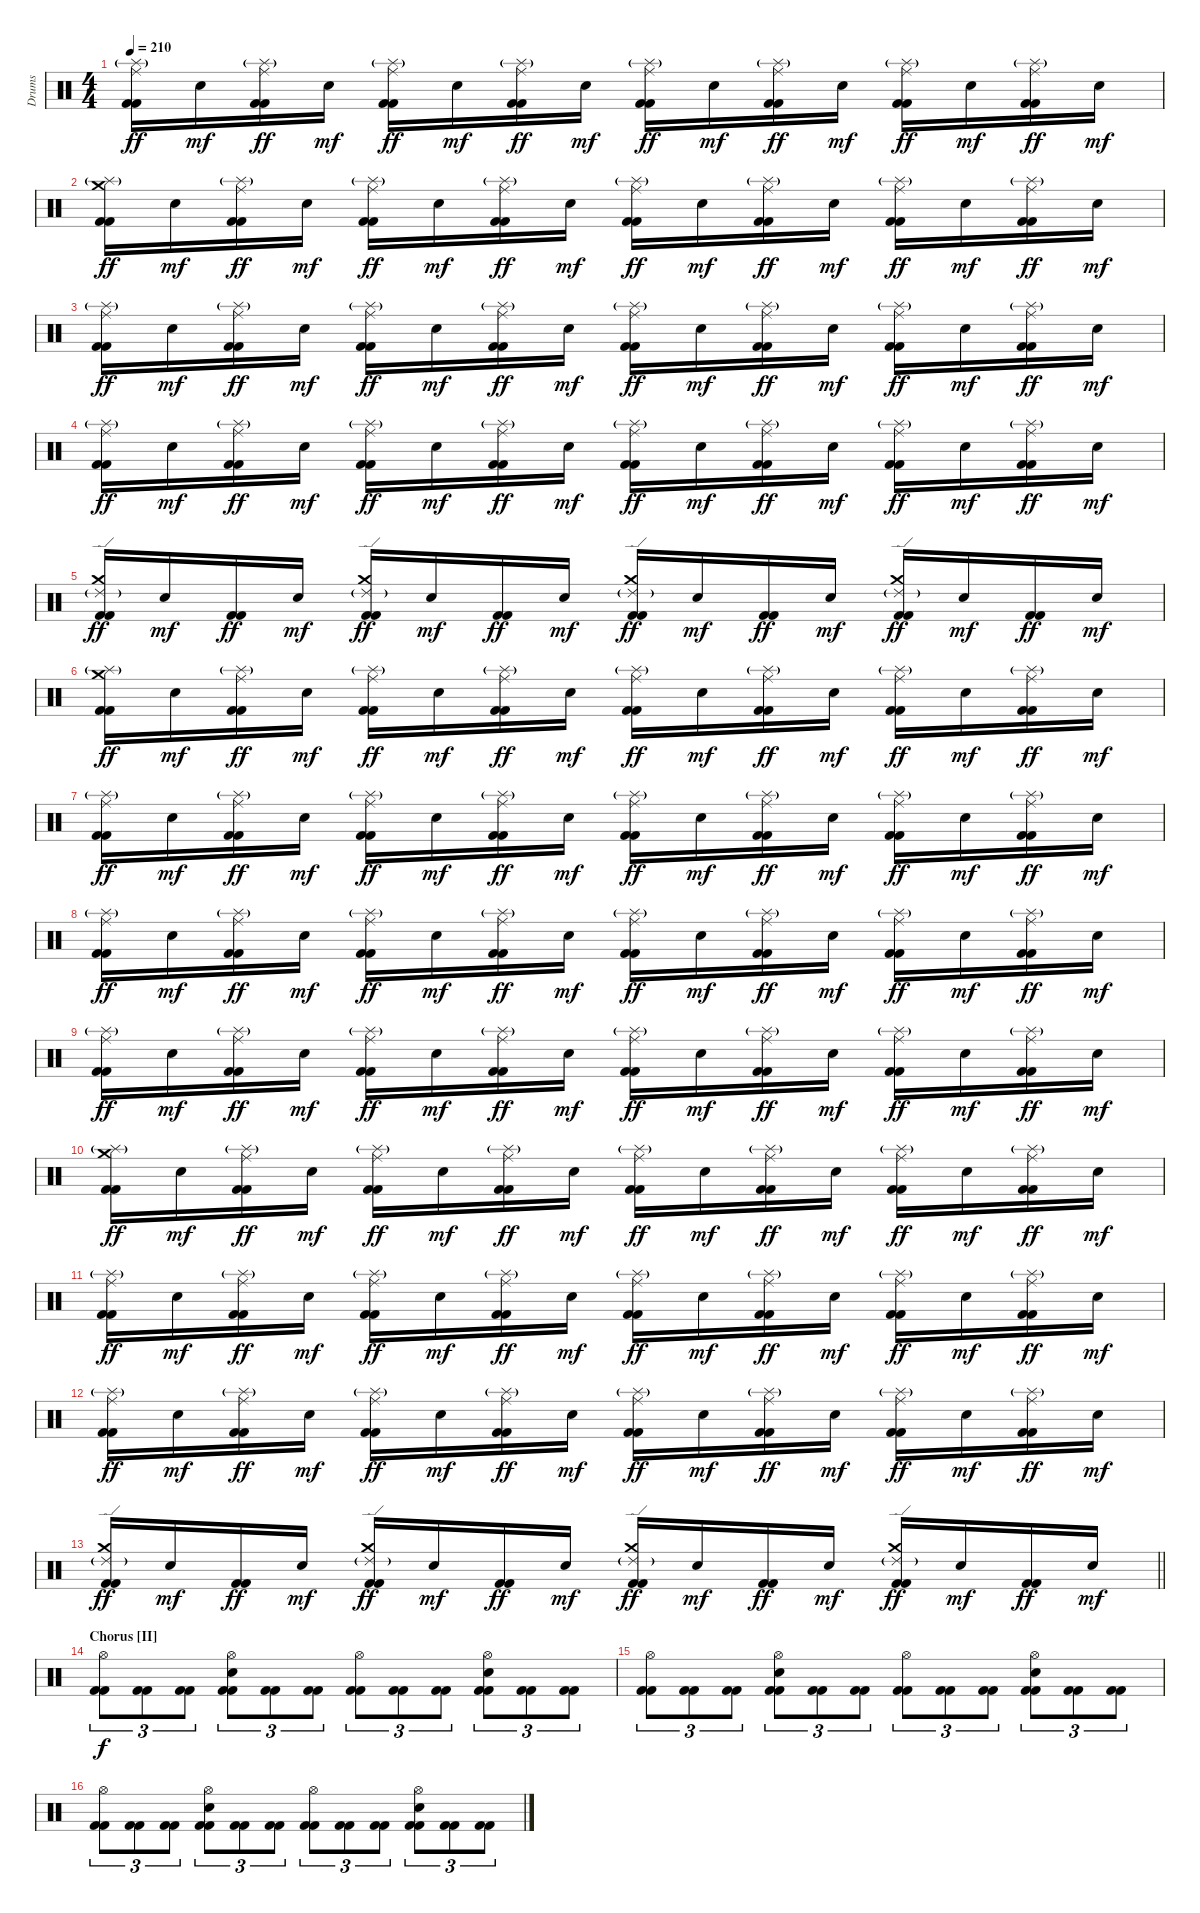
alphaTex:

\track ("Drums" "Drums") {instrument percussion}
\staff {score}
\articulation defaults
\ts (4 4)
\tempo 210
\clef neutral
\ks c
("Ride (middle)" "Splash (hit)"{g} "Kick (hit) 2" "Kick (hit) 2").16{dy ff} "Snare (hit) 2".16{dy mf} ("Ride (middle)" "Splash (hit)"{g} "Kick (hit) 2" "Kick (hit) 2").16{dy ff} "Snare (hit) 2".16{dy mf} ("Ride (middle)" "Splash (hit)"{g} "Kick (hit) 2" "Kick (hit) 2").16{dy ff} "Snare (hit) 2".16{dy mf} ("Ride (middle)" "Splash (hit)"{g} "Kick (hit) 2" "Kick (hit) 2").16{dy ff} "Snare (hit) 2".16{dy mf} ("Ride (middle)" "Splash (hit)"{g} "Kick (hit) 2" "Kick (hit) 2").16{dy ff} "Snare (hit) 2".16{dy mf} ("Ride (middle)" "Splash (hit)"{g} "Kick (hit) 2" "Kick (hit) 2").16{dy ff} "Snare (hit) 2".16{dy mf} ("Ride (middle)" "Splash (hit)"{g} "Kick (hit) 2" "Kick (hit) 2").16{dy ff} "Snare (hit) 2".16{dy mf} ("Ride (middle)" "Splash (hit)"{g} "Kick (hit) 2" "Kick (hit) 2").16{dy ff} "Snare (hit) 2".16{dy mf} |
("Crash medium (hit)" "Splash (hit)"{g} "Kick (hit) 2" "Kick (hit) 2").16{dy ff} "Snare (hit) 2".16{dy mf} ("Ride (middle)" "Splash (hit)"{g} "Kick (hit) 2" "Kick (hit) 2").16{dy ff} "Snare (hit) 2".16{dy mf} ("Ride (middle)" "Splash (hit)"{g} "Kick (hit) 2" "Kick (hit) 2").16{dy ff} "Snare (hit) 2".16{dy mf} ("Ride (middle)" "Splash (hit)"{g} "Kick (hit) 2" "Kick (hit) 2").16{dy ff} "Snare (hit) 2".16{dy mf} ("Ride (middle)" "Splash (hit)"{g} "Kick (hit) 2" "Kick (hit) 2").16{dy ff} "Snare (hit) 2".16{dy mf} ("Ride (middle)" "Splash (hit)"{g} "Kick (hit) 2" "Kick (hit) 2").16{dy ff} "Snare (hit) 2".16{dy mf} ("Ride (middle)" "Splash (hit)"{g} "Kick (hit) 2" "Kick (hit) 2").16{dy ff} "Snare (hit) 2".16{dy mf} ("Ride (middle)" "Splash (hit)"{g} "Kick (hit) 2" "Kick (hit) 2").16{dy ff} "Snare (hit) 2".16{dy mf} |
("Ride (middle)" "Splash (hit)"{g} "Kick (hit) 2" "Kick (hit) 2").16{dy ff} "Snare (hit) 2".16{dy mf} ("Ride (middle)" "Splash (hit)"{g} "Kick (hit) 2" "Kick (hit) 2").16{dy ff} "Snare (hit) 2".16{dy mf} ("Ride (middle)" "Splash (hit)"{g} "Kick (hit) 2" "Kick (hit) 2").16{dy ff} "Snare (hit) 2".16{dy mf} ("Ride (middle)" "Splash (hit)"{g} "Kick (hit) 2" "Kick (hit) 2").16{dy ff} "Snare (hit) 2".16{dy mf} ("Ride (middle)" "Splash (hit)"{g} "Kick (hit) 2" "Kick (hit) 2").16{dy ff} "Snare (hit) 2".16{dy mf} ("Ride (middle)" "Splash (hit)"{g} "Kick (hit) 2" "Kick (hit) 2").16{dy ff} "Snare (hit) 2".16{dy mf} ("Ride (middle)" "Splash (hit)"{g} "Kick (hit) 2" "Kick (hit) 2").16{dy ff} "Snare (hit) 2".16{dy mf} ("Ride (middle)" "Splash (hit)"{g} "Kick (hit) 2" "Kick (hit) 2").16{dy ff} "Snare (hit) 2".16{dy mf} |
("Ride (middle)" "Splash (hit)"{g} "Kick (hit) 2" "Kick (hit) 2").16{dy ff} "Snare (hit) 2".16{dy mf} ("Ride (middle)" "Splash (hit)"{g} "Kick (hit) 2" "Kick (hit) 2").16{dy ff} "Snare (hit) 2".16{dy mf} ("Ride (middle)" "Splash (hit)"{g} "Kick (hit) 2" "Kick (hit) 2").16{dy ff} "Snare (hit) 2".16{dy mf} ("Ride (middle)" "Splash (hit)"{g} "Kick (hit) 2" "Kick (hit) 2").16{dy ff} "Snare (hit) 2".16{dy mf} ("Ride (middle)" "Splash (hit)"{g} "Kick (hit) 2" "Kick (hit) 2").16{dy ff} "Snare (hit) 2".16{dy mf} ("Ride (middle)" "Splash (hit)"{g} "Kick (hit) 2" "Kick (hit) 2").16{dy ff} "Snare (hit) 2".16{dy mf} ("Ride (middle)" "Splash (hit)"{g} "Kick (hit) 2" "Kick (hit) 2").16{dy ff} "Snare (hit) 2".16{dy mf} ("Ride (middle)" "Splash (hit)"{g} "Kick (hit) 2" "Kick (hit) 2").16{dy ff} "Snare (hit) 2".16{dy mf} |
("Crash medium (hit)" "Ride (edge) 2"{g} "Kick (hit) 2" "Kick (hit) 2").16{dy ff} "Snare (hit) 2".16{dy mf} ("Kick (hit) 2" "Kick (hit) 2").16{dy ff} "Snare (hit) 2".16{dy mf} ("Crash medium (hit)" "Ride (edge) 2"{g} "Kick (hit) 2" "Kick (hit) 2").16{dy ff} "Snare (hit) 2".16{dy mf} ("Kick (hit) 2" "Kick (hit) 2").16{dy ff} "Snare (hit) 2".16{dy mf} ("Crash medium (hit)" "Ride (edge) 2"{g} "Kick (hit) 2" "Kick (hit) 2").16{dy ff} "Snare (hit) 2".16{dy mf} ("Kick (hit) 2" "Kick (hit) 2").16{dy ff} "Snare (hit) 2".16{dy mf} ("Crash medium (hit)" "Ride (edge) 2"{g} "Kick (hit) 2" "Kick (hit) 2").16{dy ff} "Snare (hit) 2".16{dy mf} ("Kick (hit) 2" "Kick (hit) 2").16{dy ff} "Snare (hit) 2".16{dy mf} |
("Crash medium (hit)" "Splash (hit)"{g} "Kick (hit) 2" "Kick (hit) 2").16{dy ff} "Snare (hit) 2".16{dy mf} ("Ride (middle)" "Splash (hit)"{g} "Kick (hit) 2" "Kick (hit) 2").16{dy ff} "Snare (hit) 2".16{dy mf} ("Ride (middle)" "Splash (hit)"{g} "Kick (hit) 2" "Kick (hit) 2").16{dy ff} "Snare (hit) 2".16{dy mf} ("Ride (middle)" "Splash (hit)"{g} "Kick (hit) 2" "Kick (hit) 2").16{dy ff} "Snare (hit) 2".16{dy mf} ("Ride (middle)" "Splash (hit)"{g} "Kick (hit) 2" "Kick (hit) 2").16{dy ff} "Snare (hit) 2".16{dy mf} ("Ride (middle)" "Splash (hit)"{g} "Kick (hit) 2" "Kick (hit) 2").16{dy ff} "Snare (hit) 2".16{dy mf} ("Ride (middle)" "Splash (hit)"{g} "Kick (hit) 2" "Kick (hit) 2").16{dy ff} "Snare (hit) 2".16{dy mf} ("Ride (middle)" "Splash (hit)"{g} "Kick (hit) 2" "Kick (hit) 2").16{dy ff} "Snare (hit) 2".16{dy mf} |
("Ride (middle)" "Splash (hit)"{g} "Kick (hit) 2" "Kick (hit) 2").16{dy ff} "Snare (hit) 2".16{dy mf} ("Ride (middle)" "Splash (hit)"{g} "Kick (hit) 2" "Kick (hit) 2").16{dy ff} "Snare (hit) 2".16{dy mf} ("Ride (middle)" "Splash (hit)"{g} "Kick (hit) 2" "Kick (hit) 2").16{dy ff} "Snare (hit) 2".16{dy mf} ("Ride (middle)" "Splash (hit)"{g} "Kick (hit) 2" "Kick (hit) 2").16{dy ff} "Snare (hit) 2".16{dy mf} ("Ride (middle)" "Splash (hit)"{g} "Kick (hit) 2" "Kick (hit) 2").16{dy ff} "Snare (hit) 2".16{dy mf} ("Ride (middle)" "Splash (hit)"{g} "Kick (hit) 2" "Kick (hit) 2").16{dy ff} "Snare (hit) 2".16{dy mf} ("Ride (middle)" "Splash (hit)"{g} "Kick (hit) 2" "Kick (hit) 2").16{dy ff} "Snare (hit) 2".16{dy mf} ("Ride (middle)" "Splash (hit)"{g} "Kick (hit) 2" "Kick (hit) 2").16{dy ff} "Snare (hit) 2".16{dy mf} |
("Ride (middle)" "Splash (hit)"{g} "Kick (hit) 2" "Kick (hit) 2").16{dy ff} "Snare (hit) 2".16{dy mf} ("Ride (middle)" "Splash (hit)"{g} "Kick (hit) 2" "Kick (hit) 2").16{dy ff} "Snare (hit) 2".16{dy mf} ("Ride (middle)" "Splash (hit)"{g} "Kick (hit) 2" "Kick (hit) 2").16{dy ff} "Snare (hit) 2".16{dy mf} ("Ride (middle)" "Splash (hit)"{g} "Kick (hit) 2" "Kick (hit) 2").16{dy ff} "Snare (hit) 2".16{dy mf} ("Ride (middle)" "Splash (hit)"{g} "Kick (hit) 2" "Kick (hit) 2").16{dy ff} "Snare (hit) 2".16{dy mf} ("Ride (middle)" "Splash (hit)"{g} "Kick (hit) 2" "Kick (hit) 2").16{dy ff} "Snare (hit) 2".16{dy mf} ("Ride (middle)" "Splash (hit)"{g} "Kick (hit) 2" "Kick (hit) 2").16{dy ff} "Snare (hit) 2".16{dy mf} ("Ride (middle)" "Splash (hit)"{g} "Kick (hit) 2" "Kick (hit) 2").16{dy ff} "Snare (hit) 2".16{dy mf} |
("Ride (middle)" "Splash (hit)"{g} "Kick (hit) 2" "Kick (hit) 2").16{dy ff} "Snare (hit) 2".16{dy mf} ("Ride (middle)" "Splash (hit)"{g} "Kick (hit) 2" "Kick (hit) 2").16{dy ff} "Snare (hit) 2".16{dy mf} ("Ride (middle)" "Splash (hit)"{g} "Kick (hit) 2" "Kick (hit) 2").16{dy ff} "Snare (hit) 2".16{dy mf} ("Ride (middle)" "Splash (hit)"{g} "Kick (hit) 2" "Kick (hit) 2").16{dy ff} "Snare (hit) 2".16{dy mf} ("Ride (middle)" "Splash (hit)"{g} "Kick (hit) 2" "Kick (hit) 2").16{dy ff} "Snare (hit) 2".16{dy mf} ("Ride (middle)" "Splash (hit)"{g} "Kick (hit) 2" "Kick (hit) 2").16{dy ff} "Snare (hit) 2".16{dy mf} ("Ride (middle)" "Splash (hit)"{g} "Kick (hit) 2" "Kick (hit) 2").16{dy ff} "Snare (hit) 2".16{dy mf} ("Ride (middle)" "Splash (hit)"{g} "Kick (hit) 2" "Kick (hit) 2").16{dy ff} "Snare (hit) 2".16{dy mf} |
("Crash medium (hit)" "Splash (hit)"{g} "Kick (hit) 2" "Kick (hit) 2").16{dy ff} "Snare (hit) 2".16{dy mf} ("Ride (middle)" "Splash (hit)"{g} "Kick (hit) 2" "Kick (hit) 2").16{dy ff} "Snare (hit) 2".16{dy mf} ("Ride (middle)" "Splash (hit)"{g} "Kick (hit) 2" "Kick (hit) 2").16{dy ff} "Snare (hit) 2".16{dy mf} ("Ride (middle)" "Splash (hit)"{g} "Kick (hit) 2" "Kick (hit) 2").16{dy ff} "Snare (hit) 2".16{dy mf} ("Ride (middle)" "Splash (hit)"{g} "Kick (hit) 2" "Kick (hit) 2").16{dy ff} "Snare (hit) 2".16{dy mf} ("Ride (middle)" "Splash (hit)"{g} "Kick (hit) 2" "Kick (hit) 2").16{dy ff} "Snare (hit) 2".16{dy mf} ("Ride (middle)" "Splash (hit)"{g} "Kick (hit) 2" "Kick (hit) 2").16{dy ff} "Snare (hit) 2".16{dy mf} ("Ride (middle)" "Splash (hit)"{g} "Kick (hit) 2" "Kick (hit) 2").16{dy ff} "Snare (hit) 2".16{dy mf} |
("Ride (middle)" "Splash (hit)"{g} "Kick (hit) 2" "Kick (hit) 2").16{dy ff} "Snare (hit) 2".16{dy mf} ("Ride (middle)" "Splash (hit)"{g} "Kick (hit) 2" "Kick (hit) 2").16{dy ff} "Snare (hit) 2".16{dy mf} ("Ride (middle)" "Splash (hit)"{g} "Kick (hit) 2" "Kick (hit) 2").16{dy ff} "Snare (hit) 2".16{dy mf} ("Ride (middle)" "Splash (hit)"{g} "Kick (hit) 2" "Kick (hit) 2").16{dy ff} "Snare (hit) 2".16{dy mf} ("Ride (middle)" "Splash (hit)"{g} "Kick (hit) 2" "Kick (hit) 2").16{dy ff} "Snare (hit) 2".16{dy mf} ("Ride (middle)" "Splash (hit)"{g} "Kick (hit) 2" "Kick (hit) 2").16{dy ff} "Snare (hit) 2".16{dy mf} ("Ride (middle)" "Splash (hit)"{g} "Kick (hit) 2" "Kick (hit) 2").16{dy ff} "Snare (hit) 2".16{dy mf} ("Ride (middle)" "Splash (hit)"{g} "Kick (hit) 2" "Kick (hit) 2").16{dy ff} "Snare (hit) 2".16{dy mf} |
("Ride (middle)" "Splash (hit)"{g} "Kick (hit) 2" "Kick (hit) 2").16{dy ff} "Snare (hit) 2".16{dy mf} ("Ride (middle)" "Splash (hit)"{g} "Kick (hit) 2" "Kick (hit) 2").16{dy ff} "Snare (hit) 2".16{dy mf} ("Ride (middle)" "Splash (hit)"{g} "Kick (hit) 2" "Kick (hit) 2").16{dy ff} "Snare (hit) 2".16{dy mf} ("Ride (middle)" "Splash (hit)"{g} "Kick (hit) 2" "Kick (hit) 2").16{dy ff} "Snare (hit) 2".16{dy mf} ("Ride (middle)" "Splash (hit)"{g} "Kick (hit) 2" "Kick (hit) 2").16{dy ff} "Snare (hit) 2".16{dy mf} ("Ride (middle)" "Splash (hit)"{g} "Kick (hit) 2" "Kick (hit) 2").16{dy ff} "Snare (hit) 2".16{dy mf} ("Ride (middle)" "Splash (hit)"{g} "Kick (hit) 2" "Kick (hit) 2").16{dy ff} "Snare (hit) 2".16{dy mf} ("Ride (middle)" "Splash (hit)"{g} "Kick (hit) 2" "Kick (hit) 2").16{dy ff} "Snare (hit) 2".16{dy mf} |
\barLineRight lightlight
("Crash medium (hit)" "Ride (edge) 2"{g} "Kick (hit) 2" "Kick (hit) 2").16{dy ff} "Snare (hit) 2".16{dy mf} ("Kick (hit) 2" "Kick (hit) 2").16{dy ff} "Snare (hit) 2".16{dy mf} ("Crash medium (hit)" "Ride (edge) 2"{g} "Kick (hit) 2" "Kick (hit) 2").16{dy ff} "Snare (hit) 2".16{dy mf} ("Kick (hit) 2" "Kick (hit) 2").16{dy ff} "Snare (hit) 2".16{dy mf} ("Crash medium (hit)" "Ride (edge) 2"{g} "Kick (hit) 2" "Kick (hit) 2").16{dy ff} "Snare (hit) 2".16{dy mf} ("Kick (hit) 2" "Kick (hit) 2").16{dy ff} "Snare (hit) 2".16{dy mf} ("Crash medium (hit)" "Ride (edge) 2"{g} "Kick (hit) 2" "Kick (hit) 2").16{dy ff} "Snare (hit) 2".16{dy mf} ("Kick (hit) 2" "Kick (hit) 2").16{dy ff} "Snare (hit) 2".16{dy mf} |
\section ("" "Chorus [II]")
("Hi-Hat (open)" "Kick (hit) 2" "Kick (hit) 2").8{tu (3 2) dy f} ("Kick (hit) 2" "Kick (hit) 2").8{tu (3 2)} ("Kick (hit) 2" "Kick (hit) 2").8{tu (3 2)} ("Hi-Hat (open)" "Snare (hit) 2" "Kick (hit) 2" "Kick (hit) 2").8{tu (3 2)} ("Kick (hit) 2" "Kick (hit) 2").8{tu (3 2)} ("Kick (hit) 2" "Kick (hit) 2").8{tu (3 2)} ("Hi-Hat (open)" "Kick (hit) 2" "Kick (hit) 2").8{tu (3 2)} ("Kick (hit) 2" "Kick (hit) 2").8{tu (3 2)} ("Kick (hit) 2" "Kick (hit) 2").8{tu (3 2)} ("Hi-Hat (open)" "Snare (hit) 2" "Kick (hit) 2" "Kick (hit) 2").8{tu (3 2)} ("Kick (hit) 2" "Kick (hit) 2").8{tu (3 2)} ("Kick (hit) 2" "Kick (hit) 2").8{tu (3 2)} |
("Hi-Hat (open)" "Kick (hit) 2" "Kick (hit) 2").8{tu (3 2)} ("Kick (hit) 2" "Kick (hit) 2").8{tu (3 2)} ("Kick (hit) 2" "Kick (hit) 2").8{tu (3 2)} ("Hi-Hat (open)" "Snare (hit) 2" "Kick (hit) 2" "Kick (hit) 2").8{tu (3 2)} ("Kick (hit) 2" "Kick (hit) 2").8{tu (3 2)} ("Kick (hit) 2" "Kick (hit) 2").8{tu (3 2)} ("Hi-Hat (open)" "Kick (hit) 2" "Kick (hit) 2").8{tu (3 2)} ("Kick (hit) 2" "Kick (hit) 2").8{tu (3 2)} ("Kick (hit) 2" "Kick (hit) 2").8{tu (3 2)} ("Hi-Hat (open)" "Snare (hit) 2" "Kick (hit) 2" "Kick (hit) 2").8{tu (3 2)} ("Kick (hit) 2" "Kick (hit) 2").8{tu (3 2)} ("Kick (hit) 2" "Kick (hit) 2").8{tu (3 2)} |
("Hi-Hat (open)" "Kick (hit) 2" "Kick (hit) 2").8{tu (3 2)} ("Kick (hit) 2" "Kick (hit) 2").8{tu (3 2)} ("Kick (hit) 2" "Kick (hit) 2").8{tu (3 2)} ("Hi-Hat (open)" "Snare (hit) 2" "Kick (hit) 2" "Kick (hit) 2").8{tu (3 2)} ("Kick (hit) 2" "Kick (hit) 2").8{tu (3 2)} ("Kick (hit) 2" "Kick (hit) 2").8{tu (3 2)} ("Hi-Hat (open)" "Kick (hit) 2" "Kick (hit) 2").8{tu (3 2)} ("Kick (hit) 2" "Kick (hit) 2").8{tu (3 2)} ("Kick (hit) 2" "Kick (hit) 2").8{tu (3 2)} ("Hi-Hat (open)" "Snare (hit) 2" "Kick (hit) 2" "Kick (hit) 2").8{tu (3 2)} ("Kick (hit) 2" "Kick (hit) 2").8{tu (3 2)} ("Kick (hit) 2" "Kick (hit) 2").8{tu (3 2)}
